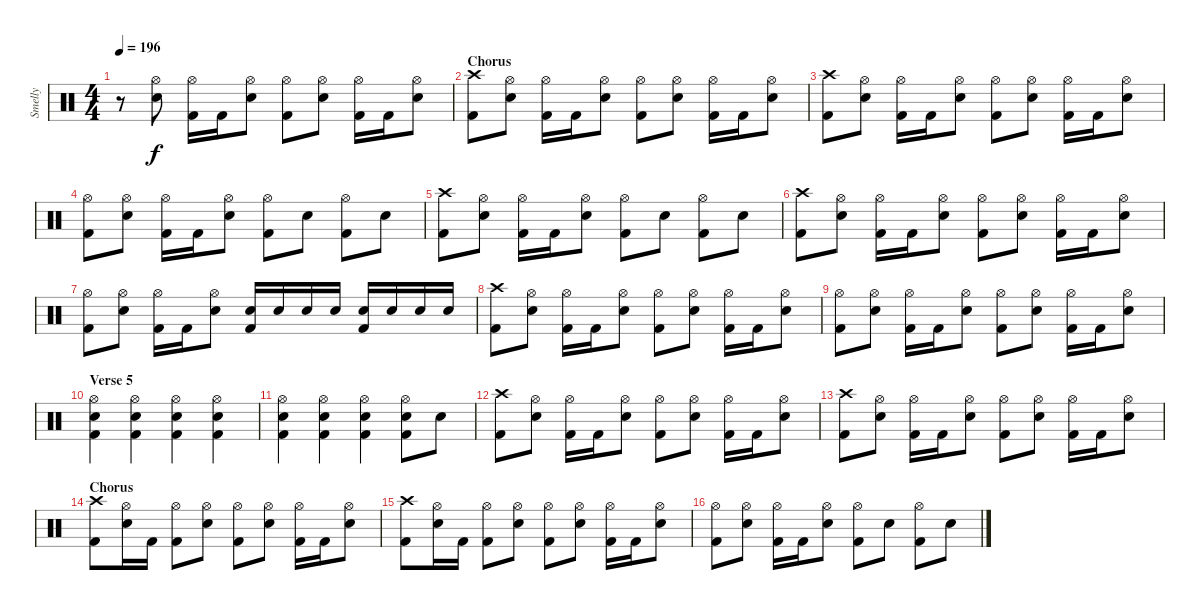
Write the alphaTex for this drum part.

\track ("Smelly" "Smelly") {instrument percussion}
\staff {score}
\articulation defaults
\ts (4 4)
\tempo 196
\clef neutral
\ks c
r.8{dy f} ("Hi-Hat (open)" "Snare (hit) 2").8 ("Hi-Hat (open)" "Kick (hit) 2").16 "Kick (hit) 2".16 ("Hi-Hat (open)" "Snare (hit) 2").8 ("Hi-Hat (open)" "Kick (hit) 2").8 ("Hi-Hat (open)" "Snare (hit) 2").8 ("Hi-Hat (open)" "Kick (hit) 2").16 "Kick (hit) 2".16 ("Hi-Hat (open)" "Snare (hit) 2").8 |
\section ("" "Chorus")
("Crash high (hit)" "Kick (hit) 2").8 ("Hi-Hat (open)" "Snare (hit) 2").8 ("Hi-Hat (open)" "Kick (hit) 2").16 "Kick (hit) 2".16 ("Hi-Hat (open)" "Snare (hit) 2").8 ("Hi-Hat (open)" "Kick (hit) 2").8 ("Hi-Hat (open)" "Snare (hit) 2").8 ("Hi-Hat (open)" "Kick (hit) 2").16 "Kick (hit) 2".16 ("Hi-Hat (open)" "Snare (hit) 2").8 |
("Crash high (hit)" "Kick (hit) 2").8 ("Hi-Hat (open)" "Snare (hit) 2").8 ("Hi-Hat (open)" "Kick (hit) 2").16 "Kick (hit) 2".16 ("Hi-Hat (open)" "Snare (hit) 2").8 ("Hi-Hat (open)" "Kick (hit) 2").8 ("Hi-Hat (open)" "Snare (hit) 2").8 ("Hi-Hat (open)" "Kick (hit) 2").16 "Kick (hit) 2".16 ("Hi-Hat (open)" "Snare (hit) 2").8 |
("Hi-Hat (open)" "Kick (hit) 2").8 ("Hi-Hat (open)" "Snare (hit) 2").8 ("Hi-Hat (open)" "Kick (hit) 2").16 "Kick (hit) 2".16 ("Hi-Hat (open)" "Snare (hit) 2").8 ("Hi-Hat (open)" "Kick (hit) 2").8 "Snare (hit) 2".8 ("Hi-Hat (open)" "Kick (hit) 2").8 "Snare (hit) 2".8 |
("Crash high (hit)" "Kick (hit) 2").8 ("Hi-Hat (open)" "Snare (hit) 2").8 ("Hi-Hat (open)" "Kick (hit) 2").16 "Kick (hit) 2".16 ("Hi-Hat (open)" "Snare (hit) 2").8 ("Hi-Hat (open)" "Kick (hit) 2").8 "Snare (hit) 2".8 ("Hi-Hat (open)" "Kick (hit) 2").8 "Snare (hit) 2".8 |
("Crash high (hit)" "Kick (hit) 2").8 ("Hi-Hat (open)" "Snare (hit) 2").8 ("Hi-Hat (open)" "Kick (hit) 2").16 "Kick (hit) 2".16 ("Hi-Hat (open)" "Snare (hit) 2").8 ("Hi-Hat (open)" "Kick (hit) 2").8 ("Hi-Hat (open)" "Snare (hit) 2").8 ("Hi-Hat (open)" "Kick (hit) 2").16 "Kick (hit) 2".16 ("Hi-Hat (open)" "Snare (hit) 2").8 |
("Hi-Hat (open)" "Kick (hit) 2").8 ("Hi-Hat (open)" "Snare (hit) 2").8 ("Hi-Hat (open)" "Kick (hit) 2").16 "Kick (hit) 2".16 ("Hi-Hat (open)" "Snare (hit) 2").8 ("Snare (hit) 2" "Kick (hit) 2").16 "Snare (hit) 2".16 "Snare (hit) 2".16 "Snare (hit) 2".16 ("Snare (hit) 2" "Kick (hit) 2").16 "Snare (hit) 2".16 "Snare (hit) 2".16 "Snare (hit) 2".16 |
("Crash high (hit)" "Kick (hit) 2").8 ("Hi-Hat (open)" "Snare (hit) 2").8 ("Hi-Hat (open)" "Kick (hit) 2").16 "Kick (hit) 2".16 ("Hi-Hat (open)" "Snare (hit) 2").8 ("Hi-Hat (open)" "Kick (hit) 2").8 ("Hi-Hat (open)" "Snare (hit) 2").8 ("Hi-Hat (open)" "Kick (hit) 2").16 "Kick (hit) 2".16 ("Hi-Hat (open)" "Snare (hit) 2").8 |
("Hi-Hat (open)" "Kick (hit) 2").8 ("Hi-Hat (open)" "Snare (hit) 2").8 ("Hi-Hat (open)" "Kick (hit) 2").16 "Kick (hit) 2".16 ("Hi-Hat (open)" "Snare (hit) 2").8 ("Hi-Hat (open)" "Kick (hit) 2").8 ("Hi-Hat (open)" "Snare (hit) 2").8 ("Hi-Hat (open)" "Kick (hit) 2").16 "Kick (hit) 2".16 ("Hi-Hat (open)" "Snare (hit) 2").8 |
\section ("" "Verse 5")
("Hi-Hat (open)" "Snare (hit) 2" "Kick (hit) 2").4 ("Hi-Hat (open)" "Snare (hit) 2" "Kick (hit) 2").4 ("Hi-Hat (open)" "Snare (hit) 2" "Kick (hit) 2").4 ("Hi-Hat (open)" "Snare (hit) 2" "Kick (hit) 2").4 |
("Hi-Hat (open)" "Snare (hit) 2" "Kick (hit) 2").4 ("Hi-Hat (open)" "Snare (hit) 2" "Kick (hit) 2").4 ("Hi-Hat (open)" "Snare (hit) 2" "Kick (hit) 2").4 ("Hi-Hat (open)" "Snare (hit) 2" "Kick (hit) 2").8 "Snare (hit) 2".8 |
("Crash high (hit)" "Kick (hit) 2").8 ("Hi-Hat (open)" "Snare (hit) 2").8 ("Hi-Hat (open)" "Kick (hit) 2").16 "Kick (hit) 2".16 ("Hi-Hat (open)" "Snare (hit) 2").8 ("Hi-Hat (open)" "Kick (hit) 2").8 ("Hi-Hat (open)" "Snare (hit) 2").8 ("Hi-Hat (open)" "Kick (hit) 2").16 "Kick (hit) 2".16 ("Hi-Hat (open)" "Snare (hit) 2").8 |
("Crash high (hit)" "Kick (hit) 2").8 ("Hi-Hat (open)" "Snare (hit) 2").8 ("Hi-Hat (open)" "Kick (hit) 2").16 "Kick (hit) 2".16 ("Hi-Hat (open)" "Snare (hit) 2").8 ("Hi-Hat (open)" "Kick (hit) 2").8 ("Hi-Hat (open)" "Snare (hit) 2").8 ("Hi-Hat (open)" "Kick (hit) 2").16 "Kick (hit) 2".16 ("Hi-Hat (open)" "Snare (hit) 2").8 |
\section ("" "Chorus")
("Crash high (hit)" "Kick (hit) 2").8 ("Hi-Hat (open)" "Snare (hit) 2").16 "Kick (hit) 2".16 ("Hi-Hat (open)" "Kick (hit) 2").8 ("Hi-Hat (open)" "Snare (hit) 2").8 ("Hi-Hat (open)" "Kick (hit) 2").8 ("Hi-Hat (open)" "Snare (hit) 2").8 ("Hi-Hat (open)" "Kick (hit) 2").16 "Kick (hit) 2".16 ("Hi-Hat (open)" "Snare (hit) 2").8 |
("Crash high (hit)" "Kick (hit) 2").8 ("Hi-Hat (open)" "Snare (hit) 2").16 "Kick (hit) 2".16 ("Hi-Hat (open)" "Kick (hit) 2").8 ("Hi-Hat (open)" "Snare (hit) 2").8 ("Hi-Hat (open)" "Kick (hit) 2").8 ("Hi-Hat (open)" "Snare (hit) 2").8 ("Hi-Hat (open)" "Kick (hit) 2").16 "Kick (hit) 2".16 ("Hi-Hat (open)" "Snare (hit) 2").8 |
("Hi-Hat (open)" "Kick (hit) 2").8 ("Hi-Hat (open)" "Snare (hit) 2").8 ("Hi-Hat (open)" "Kick (hit) 2").16 "Kick (hit) 2".16 ("Hi-Hat (open)" "Snare (hit) 2").8 ("Hi-Hat (open)" "Kick (hit) 2").8 "Snare (hit) 2".8 ("Hi-Hat (open)" "Kick (hit) 2").8 "Snare (hit) 2".8
